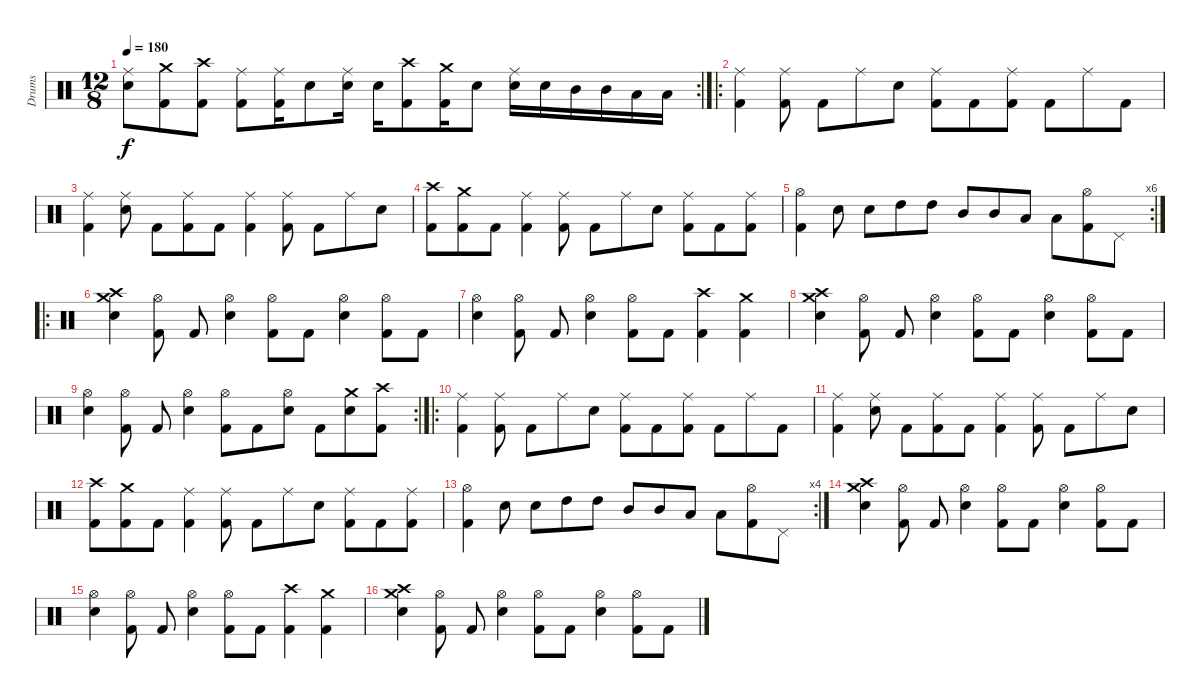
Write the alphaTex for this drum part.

\track ("Drums" "Drums") {instrument percussion}
\staff {score}
\articulation defaults
\rc 2
\ts (12 8)
\tempo 180
\clef neutral
\ks c
("Ride (middle)" "Electric Snare (hit)").8{dy f} ("Crash medium (hit)" "Kick (hit) 2").8 ("Crash high (hit)" "Kick (hit) 2").8 ("Ride (middle)" "Kick (hit) 2").8 ("Ride (middle)" "Kick (hit) 2").16 "Electric Snare (hit)".8 ("Ride (middle)" "Electric Snare (hit)").16 "Electric Snare (hit)".16 ("Crash high (hit)" "Kick (hit) 2").8 ("Crash medium (hit)" "Kick (hit) 2").16 "Electric Snare (hit)".8 ("Ride (middle)" "Electric Snare (hit)").16 "Electric Snare (hit)".16 "Mid Tom (hit)".16 "Mid Tom (hit)".16 "Low Tom (hit)".16 "Low Tom (hit)".16 |
\ro
("Ride (middle)" "Kick (hit) 2").4 ("Ride (middle)" "Kick (hit) 2").8 "Kick (hit) 2".8 "Ride (middle)".8 "Electric Snare (hit)".8 ("Ride (middle)" "Kick (hit) 2").8 "Kick (hit) 2".8 ("Ride (middle)" "Kick (hit) 2").8 "Kick (hit) 2".8 "Ride (middle)".8 "Kick (hit) 2".8 |
("Ride (middle)" "Kick (hit) 2").4 ("Ride (middle)" "Electric Snare (hit)").8 "Kick (hit) 2".8 ("Ride (middle)" "Kick (hit) 2").8 "Kick (hit) 2".8 ("Ride (middle)" "Kick (hit) 2").4 ("Ride (middle)" "Kick (hit) 2").8 "Kick (hit) 2".8 "Ride (middle)".8 "Electric Snare (hit)".8 |
("Crash high (hit)" "Kick (hit) 2").8 ("Crash medium (hit)" "Kick (hit) 2").8 "Kick (hit) 2".8 ("Ride (middle)" "Kick (hit) 2").4 ("Ride (middle)" "Kick (hit) 2").8 "Kick (hit) 2".8 "Ride (middle)".8 "Electric Snare (hit)".8 ("Ride (middle)" "Kick (hit) 2").8 "Kick (hit) 2".8 ("Ride (middle)" "Kick (hit) 2").8 |
\rc 6
("Hi-Hat (open)" "Kick (hit) 2").4 "Electric Snare (hit)".8 "Electric Snare (hit)".8 "High Tom (hit)".8 "High Tom (hit)".8 "Mid Tom (hit)".8 "Mid Tom (hit)".8 "Low Tom (hit)".8 "Low Tom (hit)".8 ("Hi-Hat (open)" "Kick (hit) 2").8 "Pedal Hi-Hat (hit)".8 |
\ro
("Crash high (hit)" "Crash medium (hit)" "Electric Snare (hit)").4 ("Hi-Hat (open)" "Kick (hit) 2").8 "Kick (hit) 2".8 ("Hi-Hat (open)" "Electric Snare (hit)").4 ("Hi-Hat (open)" "Kick (hit) 2").8 "Kick (hit) 2".8 ("Hi-Hat (open)" "Electric Snare (hit)").4 ("Hi-Hat (open)" "Kick (hit) 2").8 "Kick (hit) 2".8 |
("Hi-Hat (open)" "Electric Snare (hit)").4 ("Hi-Hat (open)" "Kick (hit) 2").8 "Kick (hit) 2".8 ("Hi-Hat (open)" "Electric Snare (hit)").4 ("Hi-Hat (open)" "Kick (hit) 2").8 "Kick (hit) 2".8 ("Crash high (hit)" "Kick (hit) 2").4 ("Crash medium (hit)" "Kick (hit) 2").4 |
("Crash high (hit)" "Crash medium (hit)" "Electric Snare (hit)").4 ("Hi-Hat (open)" "Kick (hit) 2").8 "Kick (hit) 2".8 ("Hi-Hat (open)" "Electric Snare (hit)").4 ("Hi-Hat (open)" "Kick (hit) 2").8 "Kick (hit) 2".8 ("Hi-Hat (open)" "Electric Snare (hit)").4 ("Hi-Hat (open)" "Kick (hit) 2").8 "Kick (hit) 2".8 |
\rc 2
("Hi-Hat (open)" "Electric Snare (hit)").4 ("Hi-Hat (open)" "Kick (hit) 2").8 "Kick (hit) 2".8 ("Hi-Hat (open)" "Electric Snare (hit)").4 ("Hi-Hat (open)" "Kick (hit) 2").8 "Kick (hit) 2".8 ("Hi-Hat (open)" "Electric Snare (hit)").8 "Kick (hit) 2".8 ("Crash medium (hit)" "Electric Snare (hit)").8 ("Crash high (hit)" "Kick (hit) 2").8 |
\ro
("Ride (middle)" "Kick (hit) 2").4 ("Ride (middle)" "Kick (hit) 2").8 "Kick (hit) 2".8 "Ride (middle)".8 "Electric Snare (hit)".8 ("Ride (middle)" "Kick (hit) 2").8 "Kick (hit) 2".8 ("Ride (middle)" "Kick (hit) 2").8 "Kick (hit) 2".8 "Ride (middle)".8 "Kick (hit) 2".8 |
("Ride (middle)" "Kick (hit) 2").4 ("Ride (middle)" "Electric Snare (hit)").8 "Kick (hit) 2".8 ("Ride (middle)" "Kick (hit) 2").8 "Kick (hit) 2".8 ("Ride (middle)" "Kick (hit) 2").4 ("Ride (middle)" "Kick (hit) 2").8 "Kick (hit) 2".8 "Ride (middle)".8 "Electric Snare (hit)".8 |
("Crash high (hit)" "Kick (hit) 2").8 ("Crash medium (hit)" "Kick (hit) 2").8 "Kick (hit) 2".8 ("Ride (middle)" "Kick (hit) 2").4 ("Ride (middle)" "Kick (hit) 2").8 "Kick (hit) 2".8 "Ride (middle)".8 "Electric Snare (hit)".8 ("Ride (middle)" "Kick (hit) 2").8 "Kick (hit) 2".8 ("Ride (middle)" "Kick (hit) 2").8 |
\rc 4
("Hi-Hat (open)" "Kick (hit) 2").4 "Electric Snare (hit)".8 "Electric Snare (hit)".8 "High Tom (hit)".8 "High Tom (hit)".8 "Mid Tom (hit)".8 "Mid Tom (hit)".8 "Low Tom (hit)".8 "Low Tom (hit)".8 ("Hi-Hat (open)" "Kick (hit) 2").8 "Pedal Hi-Hat (hit)".8 |
("Crash high (hit)" "Crash medium (hit)" "Electric Snare (hit)").4 ("Hi-Hat (open)" "Kick (hit) 2").8 "Kick (hit) 2".8 ("Hi-Hat (open)" "Electric Snare (hit)").4 ("Hi-Hat (open)" "Kick (hit) 2").8 "Kick (hit) 2".8 ("Hi-Hat (open)" "Electric Snare (hit)").4 ("Hi-Hat (open)" "Kick (hit) 2").8 "Kick (hit) 2".8 |
("Hi-Hat (open)" "Electric Snare (hit)").4 ("Hi-Hat (open)" "Kick (hit) 2").8 "Kick (hit) 2".8 ("Hi-Hat (open)" "Electric Snare (hit)").4 ("Hi-Hat (open)" "Kick (hit) 2").8 "Kick (hit) 2".8 ("Crash high (hit)" "Kick (hit) 2").4 ("Crash medium (hit)" "Kick (hit) 2").4 |
("Crash high (hit)" "Crash medium (hit)" "Electric Snare (hit)").4 ("Hi-Hat (open)" "Kick (hit) 2").8 "Kick (hit) 2".8 ("Hi-Hat (open)" "Electric Snare (hit)").4 ("Hi-Hat (open)" "Kick (hit) 2").8 "Kick (hit) 2".8 ("Hi-Hat (open)" "Electric Snare (hit)").4 ("Hi-Hat (open)" "Kick (hit) 2").8 "Kick (hit) 2".8
